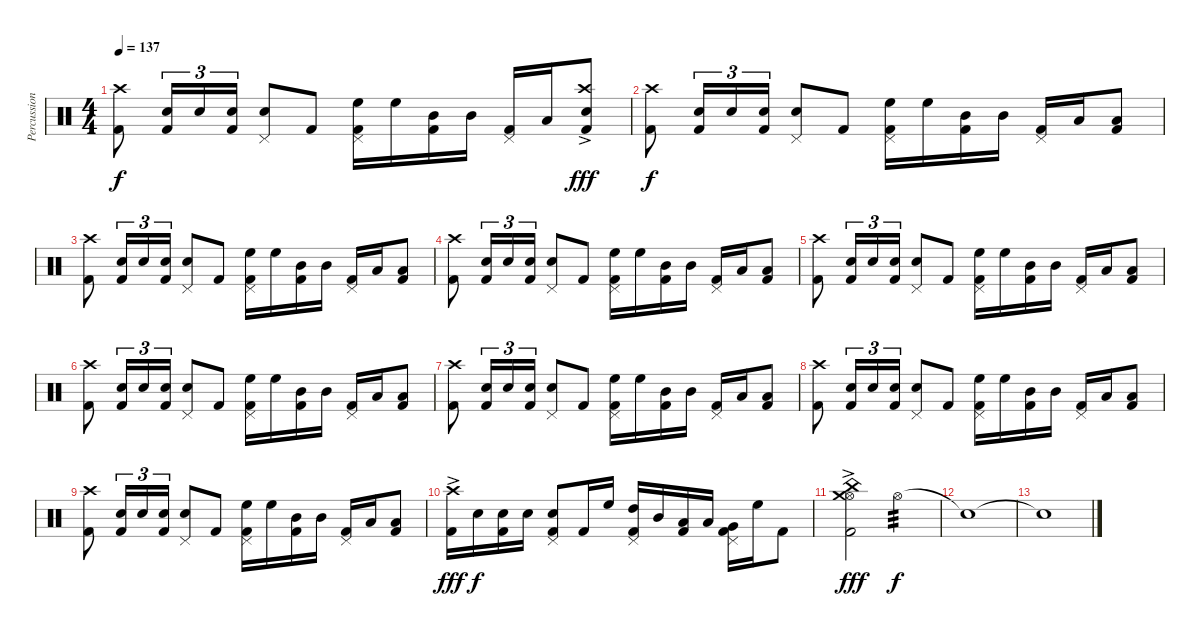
\track ("Percussion" "Percussion") {instrument percussion}
\staff {score}
\articulation defaults
\ts (4 4)
\tempo 137
\clef neutral
\ks c
("Kick (hit) 2" "Crash high (hit)").8{dy f} ("Kick (hit) 2" "Snare (hit) 2").16{tu (3 2)} "Snare (hit) 2".16{tu (3 2)} ("Kick (hit) 2" "Snare (hit) 2").16{tu (3 2)} ("Snare (hit) 2" "Pedal Hi-Hat (hit)").8 "Kick (hit) 2".8 ("Kick (hit) 2" "High Floor Tom (hit)" "Pedal Hi-Hat (hit)").16 "High Floor Tom (hit)".16 ("Kick (hit) 2" "Mid Tom (hit)").16 "Mid Tom (hit)".16 ("Kick (hit) 2" "Pedal Hi-Hat (hit)").16 "Low Tom (hit)".16 ("Kick (hit) 2" "Snare (hit) 2" "Crash high (hit)"{ac}).8{dy fff} |
("Kick (hit) 2" "Crash high (hit)").8{dy f} ("Kick (hit) 2" "Snare (hit) 2").16{tu (3 2)} "Snare (hit) 2".16{tu (3 2)} ("Kick (hit) 2" "Snare (hit) 2").16{tu (3 2)} ("Snare (hit) 2" "Pedal Hi-Hat (hit)").8 "Kick (hit) 2".8 ("Kick (hit) 2" "High Floor Tom (hit)" "Pedal Hi-Hat (hit)").16 "High Floor Tom (hit)".16 ("Kick (hit) 2" "Mid Tom (hit)").16 "Mid Tom (hit)".16 ("Kick (hit) 2" "Pedal Hi-Hat (hit)").16 "Low Tom (hit)".16 ("Kick (hit) 2" "Low Tom (hit)").8 |
("Kick (hit) 2" "Crash high (hit)").8 ("Kick (hit) 2" "Snare (hit) 2").16{tu (3 2)} "Snare (hit) 2".16{tu (3 2)} ("Kick (hit) 2" "Snare (hit) 2").16{tu (3 2)} ("Snare (hit) 2" "Pedal Hi-Hat (hit)").8 "Kick (hit) 2".8 ("Kick (hit) 2" "High Floor Tom (hit)" "Pedal Hi-Hat (hit)").16 "High Floor Tom (hit)".16 ("Kick (hit) 2" "Mid Tom (hit)").16 "Mid Tom (hit)".16 ("Kick (hit) 2" "Pedal Hi-Hat (hit)").16 "Low Tom (hit)".16 ("Kick (hit) 2" "Low Tom (hit)").8 |
("Kick (hit) 2" "Crash high (hit)").8 ("Kick (hit) 2" "Snare (hit) 2").16{tu (3 2)} "Snare (hit) 2".16{tu (3 2)} ("Kick (hit) 2" "Snare (hit) 2").16{tu (3 2)} ("Snare (hit) 2" "Pedal Hi-Hat (hit)").8 "Kick (hit) 2".8 ("Kick (hit) 2" "High Floor Tom (hit)" "Pedal Hi-Hat (hit)").16 "High Floor Tom (hit)".16 ("Kick (hit) 2" "Mid Tom (hit)").16 "Mid Tom (hit)".16 ("Kick (hit) 2" "Pedal Hi-Hat (hit)").16 "Low Tom (hit)".16 ("Kick (hit) 2" "Low Tom (hit)").8 |
("Kick (hit) 2" "Crash high (hit)").8 ("Kick (hit) 2" "Snare (hit) 2").16{tu (3 2)} "Snare (hit) 2".16{tu (3 2)} ("Kick (hit) 2" "Snare (hit) 2").16{tu (3 2)} ("Snare (hit) 2" "Pedal Hi-Hat (hit)").8 "Kick (hit) 2".8 ("Kick (hit) 2" "High Floor Tom (hit)" "Pedal Hi-Hat (hit)").16 "High Floor Tom (hit)".16 ("Kick (hit) 2" "Mid Tom (hit)").16 "Mid Tom (hit)".16 ("Kick (hit) 2" "Pedal Hi-Hat (hit)").16 "Low Tom (hit)".16 ("Kick (hit) 2" "Low Tom (hit)").8 |
("Kick (hit) 2" "Crash high (hit)").8 ("Kick (hit) 2" "Snare (hit) 2").16{tu (3 2)} "Snare (hit) 2".16{tu (3 2)} ("Kick (hit) 2" "Snare (hit) 2").16{tu (3 2)} ("Snare (hit) 2" "Pedal Hi-Hat (hit)").8 "Kick (hit) 2".8 ("Kick (hit) 2" "High Floor Tom (hit)" "Pedal Hi-Hat (hit)").16 "High Floor Tom (hit)".16 ("Kick (hit) 2" "Mid Tom (hit)").16 "Mid Tom (hit)".16 ("Kick (hit) 2" "Pedal Hi-Hat (hit)").16 "Low Tom (hit)".16 ("Kick (hit) 2" "Low Tom (hit)").8 |
("Kick (hit) 2" "Crash high (hit)").8 ("Kick (hit) 2" "Snare (hit) 2").16{tu (3 2)} "Snare (hit) 2".16{tu (3 2)} ("Kick (hit) 2" "Snare (hit) 2").16{tu (3 2)} ("Snare (hit) 2" "Pedal Hi-Hat (hit)").8 "Kick (hit) 2".8 ("Kick (hit) 2" "High Floor Tom (hit)" "Pedal Hi-Hat (hit)").16 "High Floor Tom (hit)".16 ("Kick (hit) 2" "Mid Tom (hit)").16 "Mid Tom (hit)".16 ("Kick (hit) 2" "Pedal Hi-Hat (hit)").16 "Low Tom (hit)".16 ("Kick (hit) 2" "Low Tom (hit)").8 |
("Kick (hit) 2" "Crash high (hit)").8 ("Kick (hit) 2" "Snare (hit) 2").16{tu (3 2)} "Snare (hit) 2".16{tu (3 2)} ("Kick (hit) 2" "Snare (hit) 2").16{tu (3 2)} ("Snare (hit) 2" "Pedal Hi-Hat (hit)").8 "Kick (hit) 2".8 ("Kick (hit) 2" "High Floor Tom (hit)" "Pedal Hi-Hat (hit)").16 "High Floor Tom (hit)".16 ("Kick (hit) 2" "Mid Tom (hit)").16 "Mid Tom (hit)".16 ("Kick (hit) 2" "Pedal Hi-Hat (hit)").16 "Low Tom (hit)".16 ("Kick (hit) 2" "Low Tom (hit)").8 |
("Kick (hit) 2" "Crash high (hit)").8 ("Kick (hit) 2" "Snare (hit) 2").16{tu (3 2)} "Snare (hit) 2".16{tu (3 2)} ("Kick (hit) 2" "Snare (hit) 2").16{tu (3 2)} ("Snare (hit) 2" "Pedal Hi-Hat (hit)").8 "Kick (hit) 2".8 ("Kick (hit) 2" "High Floor Tom (hit)" "Pedal Hi-Hat (hit)").16 "High Floor Tom (hit)".16 ("Kick (hit) 2" "Mid Tom (hit)").16 "Mid Tom (hit)".16 ("Kick (hit) 2" "Pedal Hi-Hat (hit)").16 "Low Tom (hit)".16 ("Kick (hit) 2" "Low Tom (hit)").8 |
("Kick (hit) 2" "Crash high (hit)"{ac}).16{dy fff} "Snare (hit) 2".16{dy f} ("Kick (hit) 2" "Snare (hit) 2").16 "Snare (hit) 2".16 ("Kick (hit) 2" "Snare (hit) 2" "Pedal Hi-Hat (hit)").8 "Kick (hit) 2".16 "High Floor Tom (hit)".16 ("Kick (hit) 2" "High Tom (hit)" "Pedal Hi-Hat (hit)").16 "Mid Tom (hit)".16 ("Kick (hit) 2" "Low Tom (hit)").16 "Low Tom (hit)".16 ("Kick (hit) 2" "Very Low Tom (hit)" "Pedal Hi-Hat (hit)").16 "High Floor Tom (hit)".16 "Kick (hit) 2".8 |
("Kick (hit) 2" "China (hit)"{ac} "Hi-Hat (open)"{ac} "Crash medium (hit)"{ac}).2{dy fff} "Hi-Hat (open)".2{tp 3 dy f} |
"Snare (hit)"{t}.1{balance 14} |
"Snare (hit)"{t}.1{balance 8}
